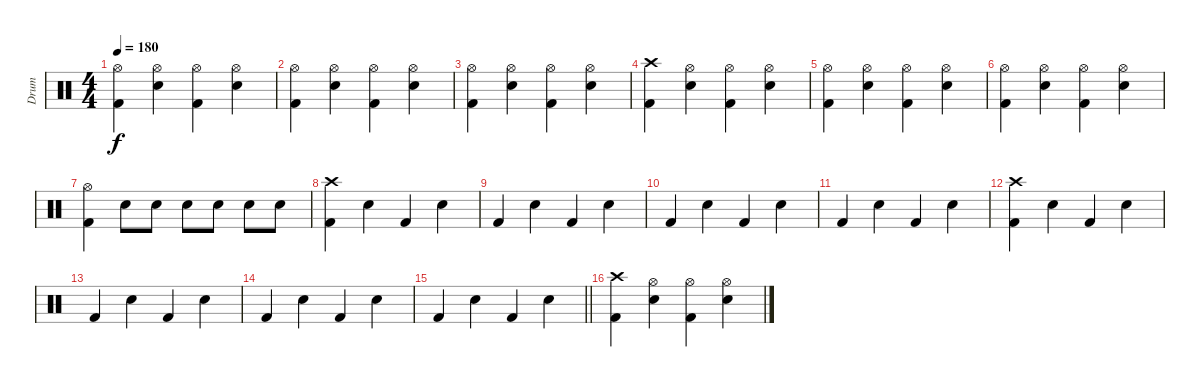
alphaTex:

\track ("Drum" "Drum") {instrument percussion}
\staff {score}
\articulation defaults
\ts (4 4)
\tempo 180
\clef neutral
\ks c
("Hi-Hat (open)" "Kick (hit) 2").4{dy f} ("Hi-Hat (open)" "Electric Snare (hit)").4 ("Hi-Hat (open)" "Kick (hit) 2").4 ("Hi-Hat (open)" "Electric Snare (hit)").4 |
("Hi-Hat (open)" "Kick (hit) 2").4 ("Hi-Hat (open)" "Electric Snare (hit)").4 ("Hi-Hat (open)" "Kick (hit) 2").4 ("Hi-Hat (open)" "Electric Snare (hit)").4 |
("Hi-Hat (open)" "Kick (hit) 2").4 ("Hi-Hat (open)" "Electric Snare (hit)").4 ("Hi-Hat (open)" "Kick (hit) 2").4 ("Hi-Hat (open)" "Electric Snare (hit)").4 |
("Crash high (hit)" "Kick (hit) 2").4 ("Hi-Hat (open)" "Electric Snare (hit)").4 ("Hi-Hat (open)" "Kick (hit) 2").4 ("Hi-Hat (open)" "Electric Snare (hit)").4 |
("Hi-Hat (open)" "Kick (hit) 2").4 ("Hi-Hat (open)" "Electric Snare (hit)").4 ("Hi-Hat (open)" "Kick (hit) 2").4 ("Hi-Hat (open)" "Electric Snare (hit)").4 |
("Hi-Hat (open)" "Kick (hit) 2").4 ("Hi-Hat (open)" "Electric Snare (hit)").4 ("Hi-Hat (open)" "Kick (hit) 2").4 ("Hi-Hat (open)" "Electric Snare (hit)").4 |
("Hi-Hat (open)" "Kick (hit) 2").4 "Electric Snare (hit)".8 "Electric Snare (hit)".8 "Electric Snare (hit)".8 "Electric Snare (hit)".8 "Electric Snare (hit)".8 "Electric Snare (hit)".8 |
("Crash high (hit)" "Kick (hit) 2").4 "Electric Snare (hit)".4 "Kick (hit) 2".4 "Electric Snare (hit)".4 |
"Kick (hit) 2".4 "Electric Snare (hit)".4 "Kick (hit) 2".4 "Electric Snare (hit)".4 |
"Kick (hit) 2".4 "Electric Snare (hit)".4 "Kick (hit) 2".4 "Electric Snare (hit)".4 |
"Kick (hit) 2".4 "Electric Snare (hit)".4 "Kick (hit) 2".4 "Electric Snare (hit)".4 |
("Crash high (hit)" "Kick (hit) 2").4 "Electric Snare (hit)".4 "Kick (hit) 2".4 "Electric Snare (hit)".4 |
"Kick (hit) 2".4 "Electric Snare (hit)".4 "Kick (hit) 2".4 "Electric Snare (hit)".4 |
"Kick (hit) 2".4 "Electric Snare (hit)".4 "Kick (hit) 2".4 "Electric Snare (hit)".4 |
\barLineRight lightlight "Kick (hit) 2".4 "Electric Snare (hit)".4 "Kick (hit) 2".4 "Electric Snare (hit)".4
|
("Crash high (hit)" "Kick (hit) 2").4 ("Hi-Hat (open)" "Electric Snare (hit)").4 ("Hi-Hat (open)" "Kick (hit) 2").4 ("Hi-Hat (open)" "Electric Snare (hit)").4
